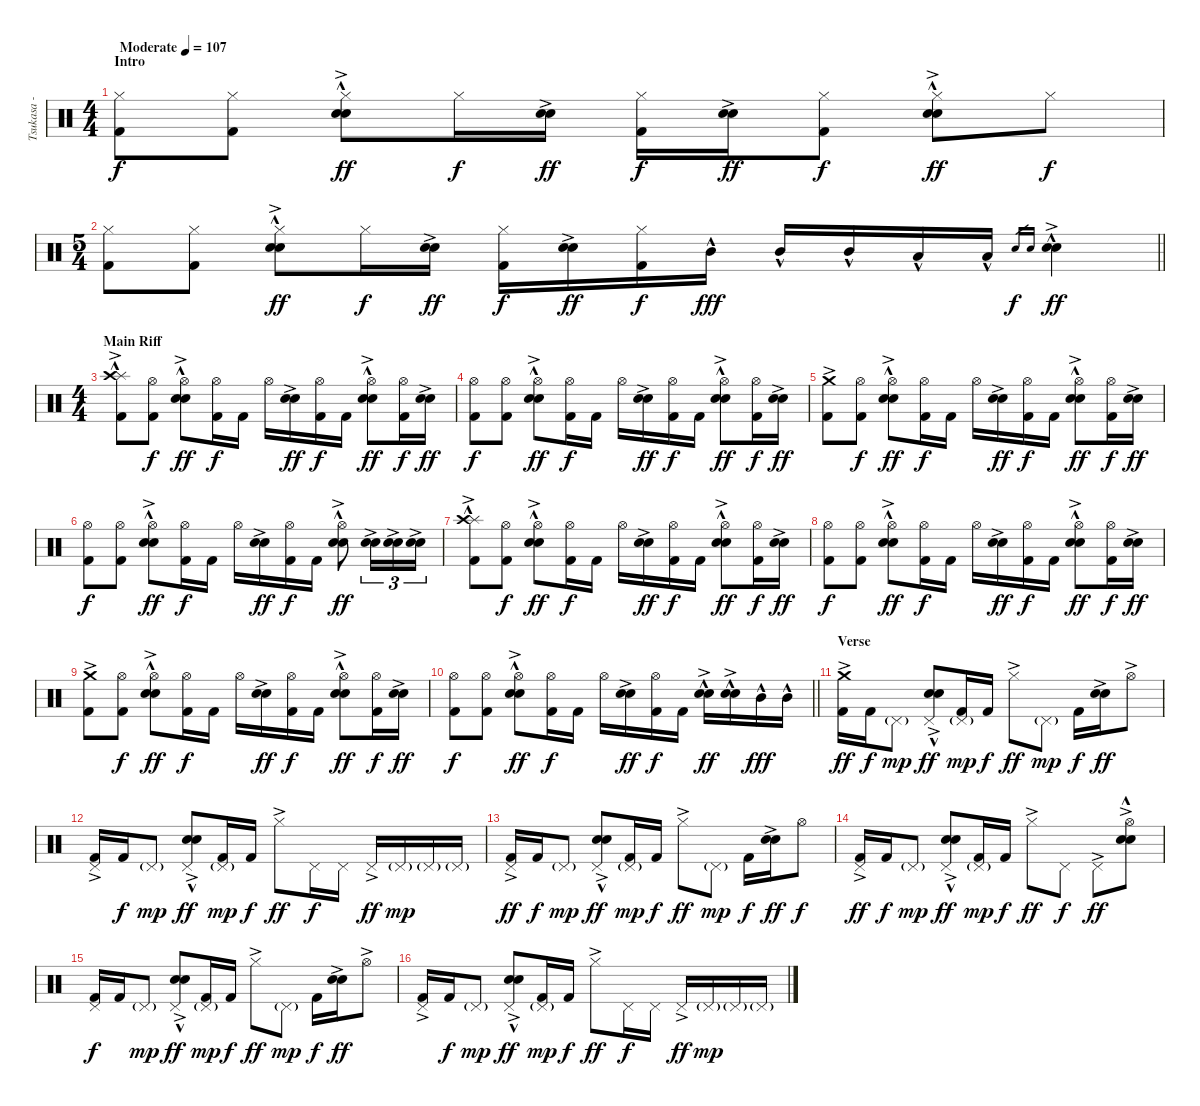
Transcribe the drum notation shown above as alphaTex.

\track ("Tsukasa - Drums" "Tsukasa - ") {instrument percussion}
\staff {score}
\articulation defaults
\ts (4 4)
\section ("" "Intro")
\tempo (107 "Moderate")
\clef neutral
\ks c
("Hi-Hat (closed)" "Kick (hit) 2").8{dy f} ("Hi-Hat (closed)" "Kick (hit) 2").8 ("Hi-Hat (closed)" "Electric Snare (hit)"{hac} "Snare (hit) 2"{ac}).8{dy ff} "Hi-Hat (closed)".16{dy f} ("Electric Snare (hit)"{ac} "Snare (hit) 2").16{dy ff} ("Hi-Hat (closed)" "Kick (hit) 2").16{dy f} ("Electric Snare (hit)"{ac} "Snare (hit) 2").16{dy ff} ("Hi-Hat (closed)" "Kick (hit) 2").8{dy f} ("Hi-Hat (closed)" "Electric Snare (hit)"{hac} "Snare (hit) 2"{ac}).8{dy ff} "Hi-Hat (closed)".8{dy f} |
\ts (5 4)
\barLineRight lightlight
("Hi-Hat (closed)" "Kick (hit) 2").8 ("Hi-Hat (closed)" "Kick (hit) 2").8 ("Hi-Hat (closed)" "Electric Snare (hit)"{hac} "Snare (hit) 2"{ac}).8{dy ff} "Hi-Hat (closed)".16{dy f} ("Electric Snare (hit)"{ac} "Snare (hit) 2").16{dy ff} ("Hi-Hat (closed)" "Kick (hit) 2").16{dy f} ("Electric Snare (hit)"{ac} "Snare (hit) 2").16{dy ff} ("Hi-Hat (closed)" "Kick (hit) 2").16{dy f} "Mid Tom (hit)"{hac}.16{dy fff} "Mid Tom (hit)"{hac}.16 "Mid Tom (hit)"{hac}.16 "Low Tom (hit)"{hac}.16 "Low Tom (hit)"{hac}.16 "Electric Snare (hit)".16{gr dy f} "Snare (hit) 2".16{gr} ("Electric Snare (hit)"{hac} "Snare (hit) 2"{ac}).4{dy ff} |
\ts (4 4)
\section ("" "Main Riff")
("Splash (hit)"{hac} "Crash high (hit)"{ac} "Kick (hit) 2").8 ("Hi-Hat (open)" "Kick (hit) 2").8{dy f} ("Hi-Hat (open)" "Electric Snare (hit)"{hac} "Snare (hit) 2"{ac}).8{dy ff} ("Hi-Hat (open)" "Kick (hit) 2").16{dy f} "Kick (hit) 2".16 "Hi-Hat (open)".16 ("Electric Snare (hit)"{ac} "Snare (hit) 2").16{dy ff} ("Hi-Hat (open)" "Kick (hit) 2").16{dy f} "Kick (hit) 2".16 ("Hi-Hat (open)" "Electric Snare (hit)"{hac} "Snare (hit) 2"{ac}).8{dy ff} ("Hi-Hat (open)" "Kick (hit) 2").16{dy f} ("Electric Snare (hit)"{ac} "Snare (hit) 2").16{dy ff} |
("Hi-Hat (open)" "Kick (hit) 2").8{dy f} ("Hi-Hat (open)" "Kick (hit) 2").8 ("Hi-Hat (open)" "Electric Snare (hit)"{hac} "Snare (hit) 2"{ac}).8{dy ff} ("Hi-Hat (open)" "Kick (hit) 2").16{dy f} "Kick (hit) 2".16 "Hi-Hat (open)".16 ("Electric Snare (hit)"{ac} "Snare (hit) 2").16{dy ff} ("Hi-Hat (open)" "Kick (hit) 2").16{dy f} "Kick (hit) 2".16 ("Hi-Hat (open)" "Electric Snare (hit)"{hac} "Snare (hit) 2"{ac}).8{dy ff} ("Hi-Hat (open)" "Kick (hit) 2").16{dy f} ("Electric Snare (hit)"{ac} "Snare (hit) 2").16{dy ff} |
("Crash medium (hit)"{ac} "Kick (hit) 2").8 ("Hi-Hat (open)" "Kick (hit) 2").8{dy f} ("Hi-Hat (open)" "Electric Snare (hit)"{hac} "Snare (hit) 2"{ac}).8{dy ff} ("Hi-Hat (open)" "Kick (hit) 2").16{dy f} "Kick (hit) 2".16 "Hi-Hat (open)".16 ("Electric Snare (hit)"{ac} "Snare (hit) 2").16{dy ff} ("Hi-Hat (open)" "Kick (hit) 2").16{dy f} "Kick (hit) 2".16 ("Hi-Hat (open)" "Electric Snare (hit)"{hac} "Snare (hit) 2"{ac}).8{dy ff} ("Hi-Hat (open)" "Kick (hit) 2").16{dy f} ("Electric Snare (hit)"{ac} "Snare (hit) 2").16{dy ff} |
("Hi-Hat (open)" "Kick (hit) 2").8{dy f} ("Hi-Hat (open)" "Kick (hit) 2").8 ("Hi-Hat (open)" "Electric Snare (hit)"{hac} "Snare (hit) 2"{ac}).8{dy ff} ("Hi-Hat (open)" "Kick (hit) 2").16{dy f} "Kick (hit) 2".16 "Hi-Hat (open)".16 ("Electric Snare (hit)"{ac} "Snare (hit) 2").16{dy ff} ("Hi-Hat (open)" "Kick (hit) 2").16{dy f} "Kick (hit) 2".16 ("Hi-Hat (open)" "Electric Snare (hit)"{hac} "Snare (hit) 2"{ac}).8{dy ff} ("Electric Snare (hit)"{ac} "Snare (hit) 2"{ac}).16{tu (3 2)} ("Electric Snare (hit)"{ac} "Snare (hit) 2"{ac}).16{tu (3 2)} ("Electric Snare (hit)"{ac} "Snare (hit) 2"{ac}).16{tu (3 2)} |
("Splash (hit)"{hac} "Crash high (hit)"{ac} "Kick (hit) 2").8 ("Hi-Hat (open)" "Kick (hit) 2").8{dy f} ("Hi-Hat (open)" "Electric Snare (hit)"{hac} "Snare (hit) 2"{ac}).8{dy ff} ("Hi-Hat (open)" "Kick (hit) 2").16{dy f} "Kick (hit) 2".16 "Hi-Hat (open)".16 ("Electric Snare (hit)"{ac} "Snare (hit) 2").16{dy ff} ("Hi-Hat (open)" "Kick (hit) 2").16{dy f} "Kick (hit) 2".16 ("Hi-Hat (open)" "Electric Snare (hit)"{hac} "Snare (hit) 2"{ac}).8{dy ff} ("Hi-Hat (open)" "Kick (hit) 2").16{dy f} ("Electric Snare (hit)"{ac} "Snare (hit) 2").16{dy ff} |
("Hi-Hat (open)" "Kick (hit) 2").8{dy f} ("Hi-Hat (open)" "Kick (hit) 2").8 ("Hi-Hat (open)" "Electric Snare (hit)"{hac} "Snare (hit) 2"{ac}).8{dy ff} ("Hi-Hat (open)" "Kick (hit) 2").16{dy f} "Kick (hit) 2".16 "Hi-Hat (open)".16 ("Electric Snare (hit)"{ac} "Snare (hit) 2").16{dy ff} ("Hi-Hat (open)" "Kick (hit) 2").16{dy f} "Kick (hit) 2".16 ("Hi-Hat (open)" "Electric Snare (hit)"{hac} "Snare (hit) 2"{ac}).8{dy ff} ("Hi-Hat (open)" "Kick (hit) 2").16{dy f} ("Electric Snare (hit)"{ac} "Snare (hit) 2").16{dy ff} |
("Crash medium (hit)"{ac} "Kick (hit) 2").8 ("Hi-Hat (open)" "Kick (hit) 2").8{dy f} ("Hi-Hat (open)" "Electric Snare (hit)"{hac} "Snare (hit) 2"{ac}).8{dy ff} ("Hi-Hat (open)" "Kick (hit) 2").16{dy f} "Kick (hit) 2".16 "Hi-Hat (open)".16 ("Electric Snare (hit)"{ac} "Snare (hit) 2").16{dy ff} ("Hi-Hat (open)" "Kick (hit) 2").16{dy f} "Kick (hit) 2".16 ("Hi-Hat (open)" "Electric Snare (hit)"{hac} "Snare (hit) 2"{ac}).8{dy ff} ("Hi-Hat (open)" "Kick (hit) 2").16{dy f} ("Electric Snare (hit)"{ac} "Snare (hit) 2").16{dy ff} |
\barLineRight lightlight
("Hi-Hat (open)" "Kick (hit) 2").8{dy f} ("Hi-Hat (open)" "Kick (hit) 2").8 ("Hi-Hat (open)" "Electric Snare (hit)"{hac} "Snare (hit) 2"{ac}).8{dy ff} ("Hi-Hat (open)" "Kick (hit) 2").16{dy f} "Kick (hit) 2".16 "Hi-Hat (open)".16 ("Electric Snare (hit)"{ac} "Snare (hit) 2").16{dy ff} ("Hi-Hat (open)" "Kick (hit) 2").16{dy f} "Kick (hit) 2".16 ("Electric Snare (hit)"{hac} "Snare (hit) 2"{ac}).16{dy ff} ("Electric Snare (hit)"{hac} "Snare (hit) 2"{ac}).16 "Mid Tom (hit)"{hac}.16{dy fff} "Mid Tom (hit)"{hac}.16 |
\section ("" "Verse")
("Crash medium (hit)"{ac} "Kick (hit) 2").16{dy ff} "Kick (hit) 2".16{dy f} "Pedal Hi-Hat (hit)"{g}.8{dy mp} ("Pedal Hi-Hat (hit)"{ac} "Electric Snare (hit)"{hac} "Snare (hit) 2"{ac}).8{dy ff} ("Pedal Hi-Hat (hit)"{g} "Kick (hit) 2").16{dy mp} "Kick (hit) 2".16{dy f} "Hi-Hat (closed)"{ac}.8{dy ff} "Pedal Hi-Hat (hit)"{g}.8{dy mp} "Kick (hit) 2".16{dy f} ("Electric Snare (hit)"{ac} "Snare (hit) 2"{ac}).16{dy ff} "Hi-Hat (open)"{ac}.8 |
("Pedal Hi-Hat (hit)"{ac} "Kick (hit) 2").16 "Kick (hit) 2".16{dy f} "Pedal Hi-Hat (hit)"{g}.8{dy mp} ("Pedal Hi-Hat (hit)"{ac} "Electric Snare (hit)"{hac} "Snare (hit) 2"{ac}).8{dy ff} ("Pedal Hi-Hat (hit)"{g} "Kick (hit) 2").16{dy mp} "Kick (hit) 2".16{dy f} "Hi-Hat (closed)"{ac}.8{dy ff} "Pedal Hi-Hat (hit)".16{dy f} "Pedal Hi-Hat (hit)".16 "Pedal Hi-Hat (hit)"{ac}.16{dy ff} "Pedal Hi-Hat (hit)"{g}.16{dy mp} "Pedal Hi-Hat (hit)"{g}.16 "Pedal Hi-Hat (hit)"{g}.16 |
("Pedal Hi-Hat (hit)"{ac} "Kick (hit) 2").16{dy ff} "Kick (hit) 2".16{dy f} "Pedal Hi-Hat (hit)"{g}.8{dy mp} ("Pedal Hi-Hat (hit)"{ac} "Electric Snare (hit)"{hac} "Snare (hit) 2"{ac}).8{dy ff} ("Pedal Hi-Hat (hit)"{g} "Kick (hit) 2").16{dy mp} "Kick (hit) 2".16{dy f} "Hi-Hat (closed)"{ac}.8{dy ff} "Pedal Hi-Hat (hit)"{g}.8{dy mp} "Kick (hit) 2".16{dy f} ("Electric Snare (hit)"{ac} "Snare (hit) 2"{ac}).16{dy ff} "Hi-Hat (open)".8{dy f} |
("Pedal Hi-Hat (hit)"{ac} "Kick (hit) 2").16{dy ff} "Kick (hit) 2".16{dy f} "Pedal Hi-Hat (hit)"{g}.8{dy mp} ("Pedal Hi-Hat (hit)"{ac} "Electric Snare (hit)"{hac} "Snare (hit) 2"{ac}).8{dy ff} ("Pedal Hi-Hat (hit)"{g} "Kick (hit) 2").16{dy mp} "Kick (hit) 2".16{dy f} "Hi-Hat (closed)"{ac}.8{dy ff} "Pedal Hi-Hat (hit)".8{dy f} "Pedal Hi-Hat (hit)"{ac}.8{dy ff} ("Hi-Hat (open)"{ac} "Electric Snare (hit)"{hac} "Snare (hit) 2"{ac}).8 |
("Pedal Hi-Hat (hit)" "Kick (hit) 2").16{dy f} "Kick (hit) 2".16 "Pedal Hi-Hat (hit)"{g}.8{dy mp} ("Pedal Hi-Hat (hit)"{ac} "Electric Snare (hit)"{hac} "Snare (hit) 2"{ac}).8{dy ff} ("Pedal Hi-Hat (hit)"{g} "Kick (hit) 2").16{dy mp} "Kick (hit) 2".16{dy f} "Hi-Hat (closed)"{ac}.8{dy ff} "Pedal Hi-Hat (hit)"{g}.8{dy mp} "Kick (hit) 2".16{dy f} ("Electric Snare (hit)"{ac} "Snare (hit) 2"{ac}).16{dy ff} "Hi-Hat (open)"{ac}.8 |
("Pedal Hi-Hat (hit)"{ac} "Kick (hit) 2").16 "Kick (hit) 2".16{dy f} "Pedal Hi-Hat (hit)"{g}.8{dy mp} ("Pedal Hi-Hat (hit)"{ac} "Electric Snare (hit)"{hac} "Snare (hit) 2"{ac}).8{dy ff} ("Pedal Hi-Hat (hit)"{g} "Kick (hit) 2").16{dy mp} "Kick (hit) 2".16{dy f} "Hi-Hat (closed)"{ac}.8{dy ff} "Pedal Hi-Hat (hit)".16{dy f} "Pedal Hi-Hat (hit)".16 "Pedal Hi-Hat (hit)"{ac}.16{dy ff} "Pedal Hi-Hat (hit)"{g}.16{dy mp} "Pedal Hi-Hat (hit)"{g}.16 "Pedal Hi-Hat (hit)"{g}.16
